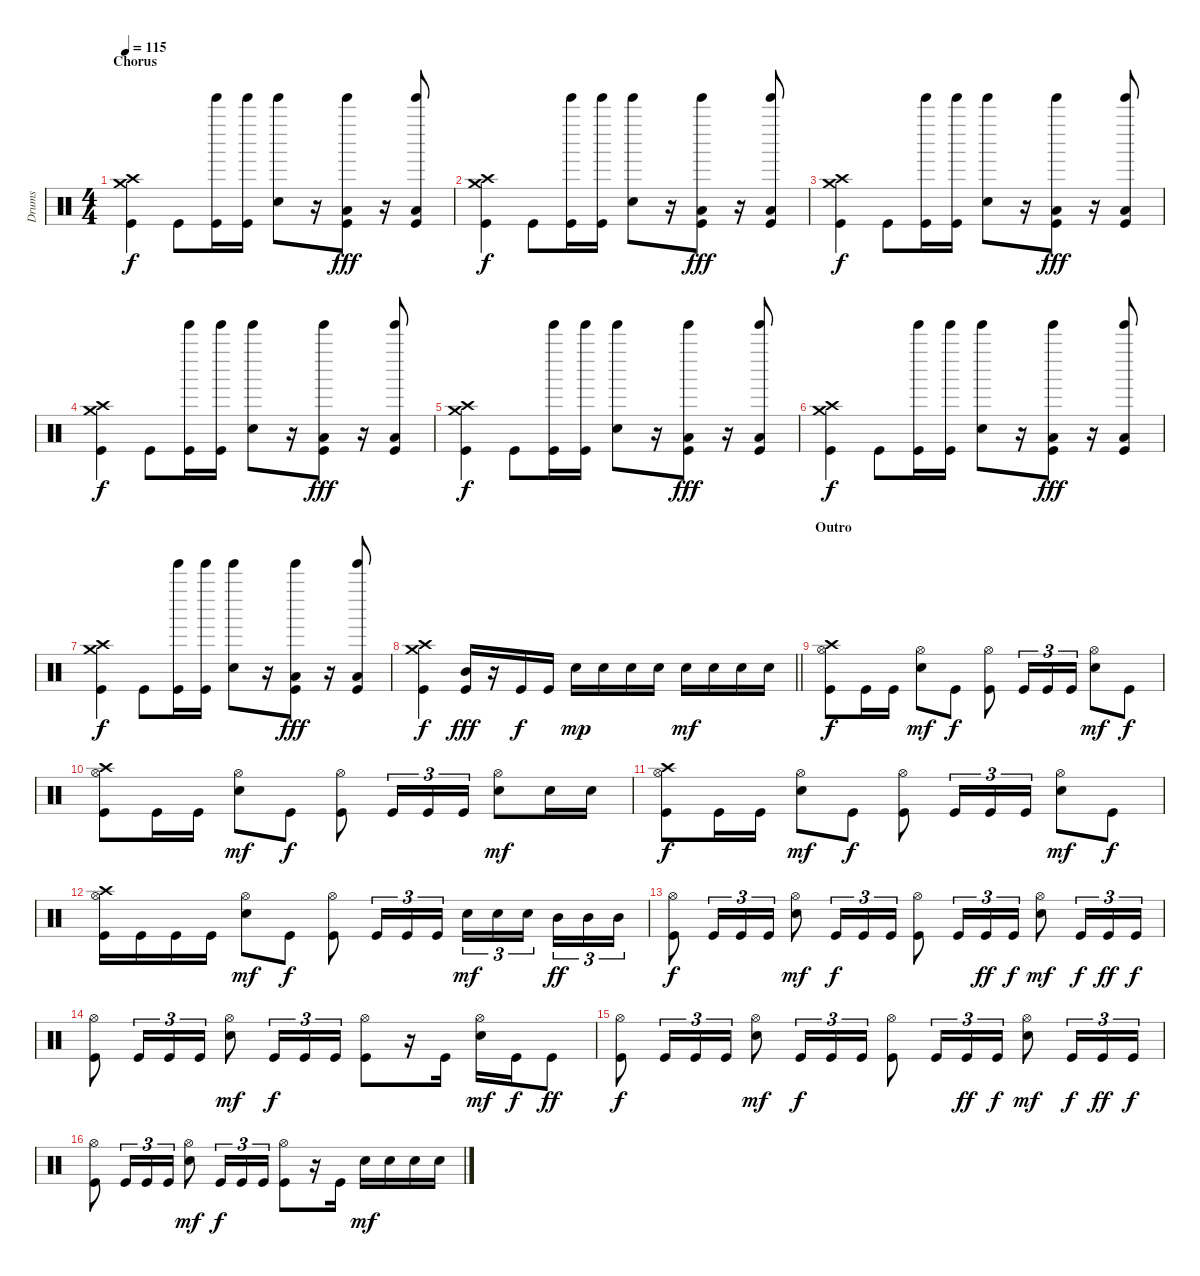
\track ("Drums" "Drums") {instrument percussion}
\staff {score}
\articulation defaults
\ts (4 4)
\section ("" "Chorus")
\tempo 115
\clef neutral
\ks c
("Crash high (hit)" "Crash medium (hit)" "Kick (hit)").4{dy f} "Kick (hit)".8 ("Tinkle Bell (hit)" "Kick (hit)").16 ("Tinkle Bell (hit)" "Kick (hit)").16 ("Tinkle Bell (hit)" "Snare (hit) 2").8 r.16 ("Tinkle Bell (hit)" "Low Tom (hit)" "Kick (hit)").8{dy fff} r.16 ("Tinkle Bell (hit)" "Low Tom (hit)" "Kick (hit)").8 |
("Crash high (hit)" "Crash medium (hit)" "Kick (hit)").4{dy f} "Kick (hit)".8 ("Tinkle Bell (hit)" "Kick (hit)").16 ("Tinkle Bell (hit)" "Kick (hit)").16 ("Tinkle Bell (hit)" "Snare (hit) 2").8 r.16 ("Tinkle Bell (hit)" "Low Tom (hit)" "Kick (hit)").8{dy fff} r.16 ("Tinkle Bell (hit)" "Low Tom (hit)" "Kick (hit)").8 |
("Crash high (hit)" "Crash medium (hit)" "Kick (hit)").4{dy f} "Kick (hit)".8 ("Tinkle Bell (hit)" "Kick (hit)").16 ("Tinkle Bell (hit)" "Kick (hit)").16 ("Tinkle Bell (hit)" "Snare (hit) 2").8 r.16 ("Tinkle Bell (hit)" "Low Tom (hit)" "Kick (hit)").8{dy fff} r.16 ("Tinkle Bell (hit)" "Low Tom (hit)" "Kick (hit)").8 |
("Crash high (hit)" "Crash medium (hit)" "Kick (hit)").4{dy f} "Kick (hit)".8 ("Tinkle Bell (hit)" "Kick (hit)").16 ("Tinkle Bell (hit)" "Kick (hit)").16 ("Tinkle Bell (hit)" "Snare (hit) 2").8 r.16 ("Tinkle Bell (hit)" "Low Tom (hit)" "Kick (hit)").8{dy fff} r.16 ("Tinkle Bell (hit)" "Low Tom (hit)" "Kick (hit)").8 |
("Crash high (hit)" "Crash medium (hit)" "Kick (hit)").4{dy f} "Kick (hit)".8 ("Tinkle Bell (hit)" "Kick (hit)").16 ("Tinkle Bell (hit)" "Kick (hit)").16 ("Tinkle Bell (hit)" "Snare (hit) 2").8 r.16 ("Tinkle Bell (hit)" "Low Tom (hit)" "Kick (hit)").8{dy fff} r.16 ("Tinkle Bell (hit)" "Low Tom (hit)" "Kick (hit)").8 |
("Crash high (hit)" "Crash medium (hit)" "Kick (hit)").4{dy f} "Kick (hit)".8 ("Tinkle Bell (hit)" "Kick (hit)").16 ("Tinkle Bell (hit)" "Kick (hit)").16 ("Tinkle Bell (hit)" "Snare (hit) 2").8 r.16 ("Tinkle Bell (hit)" "Low Tom (hit)" "Kick (hit)").8{dy fff} r.16 ("Tinkle Bell (hit)" "Low Tom (hit)" "Kick (hit)").8 |
("Crash high (hit)" "Crash medium (hit)" "Kick (hit)").4{dy f} "Kick (hit)".8 ("Tinkle Bell (hit)" "Kick (hit)").16 ("Tinkle Bell (hit)" "Kick (hit)").16 ("Tinkle Bell (hit)" "Snare (hit) 2").8 r.16 ("Tinkle Bell (hit)" "Low Tom (hit)" "Kick (hit)").8{dy fff} r.16 ("Tinkle Bell (hit)" "Low Tom (hit)" "Kick (hit)").8 |
\barLineRight lightlight
("Crash high (hit)" "Crash medium (hit)" "Kick (hit)").4{dy f} ("Mid Tom (hit)" "Kick (hit)").16{dy fff} r.16 "Kick (hit)".16{dy f} "Kick (hit)".16 "Snare (hit) 2".16{dy mp} "Snare (hit) 2".16 "Snare (hit) 2".16 "Snare (hit) 2".16 "Snare (hit) 2".16{dy mf} "Snare (hit) 2".16 "Snare (hit) 2".16 "Snare (hit) 2".16 |
\section ("" "Outro")
("Crash high (hit)" "Hi-Hat (open)" "Kick (hit)").8{dy f} "Kick (hit)".16 "Kick (hit)".16 ("Hi-Hat (open)" "Snare (hit) 2").8{dy mf} "Kick (hit)".8{dy f} ("Hi-Hat (open)" "Kick (hit)").8 "Kick (hit)".16{tu (3 2)} "Kick (hit)".16{tu (3 2)} "Kick (hit)".16{tu (3 2)} ("Hi-Hat (open)" "Snare (hit) 2").8{dy mf} "Kick (hit)".8{dy f} |
("Crash high (hit)" "Hi-Hat (open)" "Kick (hit)").8 "Kick (hit)".16 "Kick (hit)".16 ("Hi-Hat (open)" "Snare (hit) 2").8{dy mf} "Kick (hit)".8{dy f} ("Hi-Hat (open)" "Kick (hit)").8 "Kick (hit)".16{tu (3 2)} "Kick (hit)".16{tu (3 2)} "Kick (hit)".16{tu (3 2)} ("Hi-Hat (open)" "Snare (hit) 2").8{dy mf} "Snare (hit) 2".16 "Snare (hit) 2".16 |
("Crash high (hit)" "Hi-Hat (open)" "Kick (hit)").8{dy f} "Kick (hit)".16 "Kick (hit)".16 ("Hi-Hat (open)" "Snare (hit) 2").8{dy mf} "Kick (hit)".8{dy f} ("Hi-Hat (open)" "Kick (hit)").8 "Kick (hit)".16{tu (3 2)} "Kick (hit)".16{tu (3 2)} "Kick (hit)".16{tu (3 2)} ("Hi-Hat (open)" "Snare (hit) 2").8{dy mf} "Kick (hit)".8{dy f} |
("Crash high (hit)" "Hi-Hat (open)" "Kick (hit)").16 "Kick (hit)".16 "Kick (hit)".16 "Kick (hit)".16 ("Hi-Hat (open)" "Snare (hit) 2").8{dy mf} "Kick (hit)".8{dy f} ("Hi-Hat (open)" "Kick (hit)").8 "Kick (hit)".16{tu (3 2)} "Kick (hit)".16{tu (3 2)} "Kick (hit)".16{tu (3 2)} "Snare (hit) 2".16{tu (3 2) dy mf} "Snare (hit) 2".16{tu (3 2)} "Snare (hit) 2".16{tu (3 2) beam splitsecondary} "Mid Tom (hit)".16{tu (3 2) dy ff} "Mid Tom (hit)".16{tu (3 2)} "Mid Tom (hit)".16{tu (3 2)} |
("Hi-Hat (open)" "Kick (hit)").8{dy f} "Kick (hit)".16{tu (3 2)} "Kick (hit)".16{tu (3 2)} "Kick (hit)".16{tu (3 2)} ("Hi-Hat (open)" "Snare (hit) 2").8{dy mf} "Kick (hit)".16{tu (3 2) dy f} "Kick (hit)".16{tu (3 2)} "Kick (hit)".16{tu (3 2)} ("Hi-Hat (open)" "Kick (hit)").8 "Kick (hit)".16{tu (3 2)} "Kick (hit)".16{tu (3 2) dy ff} "Kick (hit)".16{tu (3 2) dy f} ("Hi-Hat (open)" "Snare (hit) 2").8{dy mf} "Kick (hit)".16{tu (3 2) dy f} "Kick (hit)".16{tu (3 2) dy ff} "Kick (hit)".16{tu (3 2) dy f} |
("Hi-Hat (open)" "Kick (hit)").8 "Kick (hit)".16{tu (3 2)} "Kick (hit)".16{tu (3 2)} "Kick (hit)".16{tu (3 2)} ("Hi-Hat (open)" "Snare (hit) 2").8{dy mf} "Kick (hit)".16{tu (3 2) dy f} "Kick (hit)".16{tu (3 2)} "Kick (hit)".16{tu (3 2)} ("Hi-Hat (open)" "Kick (hit)").8 r.16 "Kick (hit)".16 ("Hi-Hat (open)" "Snare (hit) 2").16{dy mf} "Kick (hit)".16{dy f} "Kick (hit)".8{dy ff} |
("Hi-Hat (open)" "Kick (hit)").8{dy f} "Kick (hit)".16{tu (3 2)} "Kick (hit)".16{tu (3 2)} "Kick (hit)".16{tu (3 2)} ("Hi-Hat (open)" "Snare (hit) 2").8{dy mf} "Kick (hit)".16{tu (3 2) dy f} "Kick (hit)".16{tu (3 2)} "Kick (hit)".16{tu (3 2)} ("Hi-Hat (open)" "Kick (hit)").8 "Kick (hit)".16{tu (3 2)} "Kick (hit)".16{tu (3 2) dy ff} "Kick (hit)".16{tu (3 2) dy f} ("Hi-Hat (open)" "Snare (hit) 2").8{dy mf} "Kick (hit)".16{tu (3 2) dy f} "Kick (hit)".16{tu (3 2) dy ff} "Kick (hit)".16{tu (3 2) dy f} |
("Hi-Hat (open)" "Kick (hit)").8 "Kick (hit)".16{tu (3 2)} "Kick (hit)".16{tu (3 2)} "Kick (hit)".16{tu (3 2)} ("Hi-Hat (open)" "Snare (hit) 2").8{dy mf} "Kick (hit)".16{tu (3 2) dy f} "Kick (hit)".16{tu (3 2)} "Kick (hit)".16{tu (3 2)} ("Hi-Hat (open)" "Kick (hit)").8 r.16 "Kick (hit)".16 "Snare (hit) 2".16{dy mf} "Snare (hit) 2".16 "Snare (hit) 2".16 "Snare (hit) 2".16
